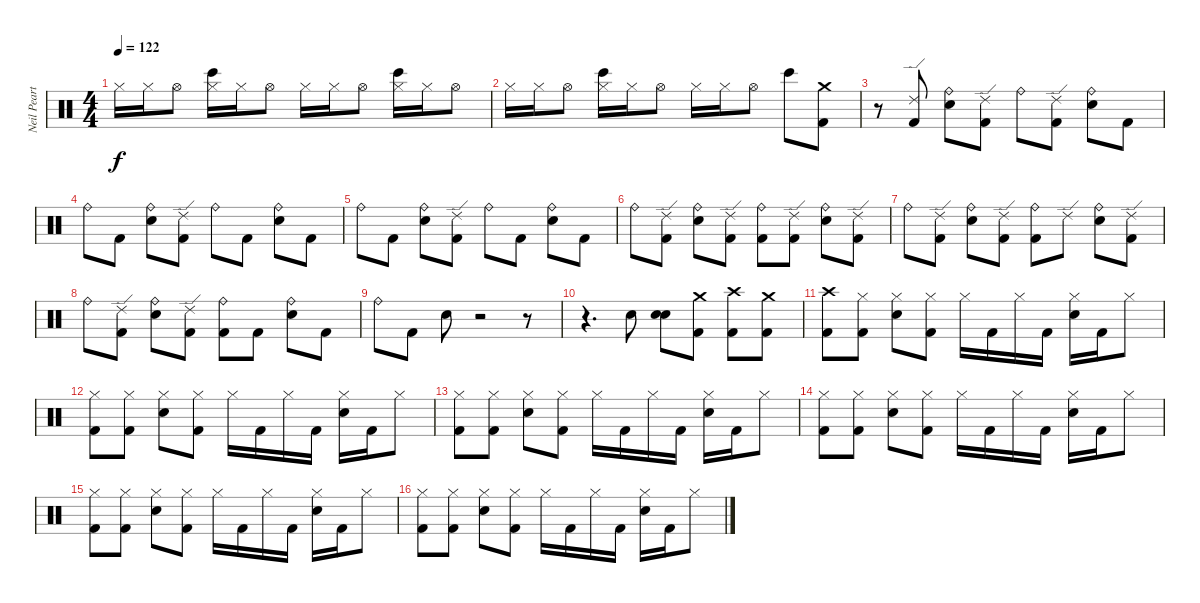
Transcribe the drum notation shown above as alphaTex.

\track ("Neil Peart" "Neil Peart") {instrument percussion}
\staff {score}
\articulation defaults
\ts (4 4)
\tempo 122
\clef neutral
\ks c "Hi-Hat (closed)".16{dy f} "Hi-Hat (closed)".16 "Hi-Hat (open)".8
("Bongo High (hit)" "Hi-Hat (closed)").16 "Hi-Hat (closed)".16 "Hi-Hat (open)".8 "Hi-Hat (closed)".16 "Hi-Hat (closed)".16 "Hi-Hat (open)".8 ("Bongo High (hit)" "Hi-Hat (closed)").16 "Hi-Hat (closed)".16 "Hi-Hat (open)".8 |
"Hi-Hat (closed)".16 "Hi-Hat (closed)".16 "Hi-Hat (open)".8 ("Bongo High (hit)" "Hi-Hat (closed)").16 "Hi-Hat (closed)".16 "Hi-Hat (open)".8 "Hi-Hat (closed)".16 "Hi-Hat (closed)".16 "Hi-Hat (open)".8 "Bongo High (hit)".8 ("Crash medium (hit)" "Kick (hit) 2").8 |
r.8 ("Kick (hit) 2" "Ride (edge) 2").8 ("Snare (hit) 2" "Ride (bell)").8 ("Kick (hit) 2" "Ride (edge) 2").8 "Ride (bell)".8 ("Kick (hit) 2" "Ride (edge) 2").8 ("Snare (hit) 2" "Ride (bell)").8 "Kick (hit) 2".8 |
"Ride (bell)".8 "Kick (hit) 2".8 ("Snare (hit) 2" "Ride (bell)").8 ("Kick (hit) 2" "Ride (edge) 2").8 "Ride (bell)".8 "Kick (hit) 2".8 ("Snare (hit) 2" "Ride (bell)").8 "Kick (hit) 2".8 |
"Ride (bell)".8 "Kick (hit) 2".8 ("Snare (hit) 2" "Ride (bell)").8 ("Ride (edge) 2" "Kick (hit) 2").8 "Ride (bell)".8 "Kick (hit) 2".8 ("Ride (bell)" "Snare (hit) 2").8 "Kick (hit) 2".8 |
"Ride (bell)".8 ("Kick (hit) 2" "Ride (edge) 2").8 ("Ride (bell)" "Snare (hit) 2").8 ("Kick (hit) 2" "Ride (edge) 2").8 ("Ride (bell)" "Kick (hit) 2").8 ("Ride (edge) 2" "Kick (hit) 2").8 ("Ride (bell)" "Snare (hit) 2").8 ("Ride (edge) 2" "Kick (hit) 2").8 |
"Ride (bell)".8 ("Kick (hit) 2" "Ride (edge) 2").8 ("Ride (bell)" "Snare (hit) 2").8 ("Ride (edge) 2" "Kick (hit) 2").8 ("Kick (hit) 2" "Ride (bell)").8 "Ride (edge) 2".8 ("Ride (bell)" "Snare (hit) 2").8 ("Kick (hit) 2" "Ride (edge) 2").8 |
"Ride (bell)".8 ("Kick (hit) 2" "Ride (edge) 2").8 ("Ride (bell)" "Snare (hit) 2").8 ("Ride (edge) 2" "Kick (hit) 2").8 ("Kick (hit) 2" "Ride (bell)").8 "Kick (hit) 2".8 ("Snare (hit) 2" "Ride (bell)").8 "Kick (hit) 2".8 |
"Ride (bell)".8 "Kick (hit) 2".8 "Snare (hit) 2".8 r.2 r.8 |
r.4{d} "Snare (hit) 2".8 ("Snare (hit) 2" "Snare (hit) 2").8 ("Kick (hit) 2" "Crash medium (hit)").8 ("Crash high (hit)" "Kick (hit) 2").8 ("Kick (hit) 2" "Crash medium (hit)").8 |
("Crash high (hit)" "Kick (hit) 2").8 ("Kick (hit) 2" "Hi-Hat (closed)").8 ("Snare (hit) 2" "Hi-Hat (closed)").8 ("Hi-Hat (closed)" "Kick (hit) 2").8 "Hi-Hat (closed)".16 "Kick (hit) 2".16 "Hi-Hat (closed)".16 "Kick (hit) 2".16 ("Snare (hit) 2" "Hi-Hat (closed)").16 "Kick (hit) 2".16 "Hi-Hat (closed)".8 |
("Kick (hit) 2" "Hi-Hat (closed)").8 ("Kick (hit) 2" "Hi-Hat (closed)").8 ("Snare (hit) 2" "Hi-Hat (closed)").8 ("Hi-Hat (closed)" "Kick (hit) 2").8 "Hi-Hat (closed)".16 "Kick (hit) 2".16 "Hi-Hat (closed)".16 "Kick (hit) 2".16 ("Snare (hit) 2" "Hi-Hat (closed)").16 "Kick (hit) 2".16 "Hi-Hat (closed)".8 |
("Kick (hit) 2" "Hi-Hat (closed)").8 ("Kick (hit) 2" "Hi-Hat (closed)").8 ("Snare (hit) 2" "Hi-Hat (closed)").8 ("Hi-Hat (closed)" "Kick (hit) 2").8 "Hi-Hat (closed)".16 "Kick (hit) 2".16 "Hi-Hat (closed)".16 "Kick (hit) 2".16 ("Hi-Hat (closed)" "Snare (hit) 2").16 "Kick (hit) 2".16 "Hi-Hat (closed)".8 |
("Hi-Hat (closed)" "Kick (hit) 2").8 ("Kick (hit) 2" "Hi-Hat (closed)").8 ("Snare (hit) 2" "Hi-Hat (closed)").8 ("Hi-Hat (closed)" "Kick (hit) 2").8 "Hi-Hat (closed)".16 "Kick (hit) 2".16 "Hi-Hat (closed)".16 "Kick (hit) 2".16 ("Snare (hit) 2" "Hi-Hat (closed)").16 "Kick (hit) 2".16 "Hi-Hat (closed)".8 |
("Hi-Hat (closed)" "Kick (hit) 2").8 ("Kick (hit) 2" "Hi-Hat (closed)").8 ("Hi-Hat (closed)" "Snare (hit) 2").8 ("Kick (hit) 2" "Hi-Hat (closed)").8 "Hi-Hat (closed)".16 "Kick (hit) 2".16 "Hi-Hat (closed)".16 "Kick (hit) 2".16 ("Snare (hit) 2" "Hi-Hat (closed)").16 "Kick (hit) 2".16 "Hi-Hat (closed)".8 |
("Kick (hit) 2" "Hi-Hat (closed)").8 ("Kick (hit) 2" "Hi-Hat (closed)").8 ("Snare (hit) 2" "Hi-Hat (closed)").8 ("Kick (hit) 2" "Hi-Hat (closed)").8 "Hi-Hat (closed)".16 "Kick (hit) 2".16 "Hi-Hat (closed)".16 "Kick (hit) 2".16 ("Hi-Hat (closed)" "Snare (hit) 2").16 "Kick (hit) 2".16 "Hi-Hat (closed)".8
